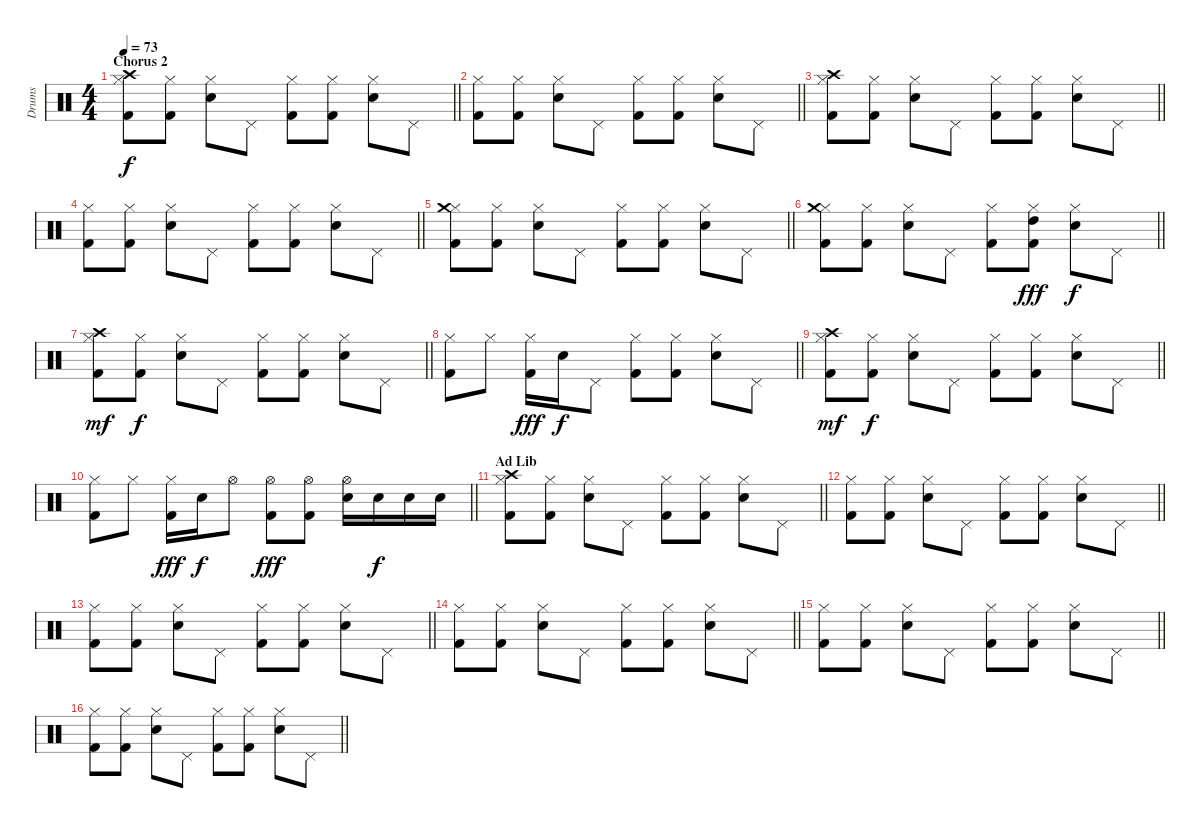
\track ("Drums" "Drums") {instrument percussion}
\staff {score}
\articulation defaults
\ts (4 4)
\section ("" "Chorus 2")
\tempo 73
\clef neutral
\barLineRight lightlight
\ks c
("Hi-Hat (closed)" "Kick (hit) 2" "Crash high (hit)").8{dy f} ("Hi-Hat (closed)" "Kick (hit) 2").8 ("Hi-Hat (closed)" "Snare (hit) 2").8 "Pedal Hi-Hat (hit)".8 ("Hi-Hat (closed)" "Kick (hit) 2").8 ("Hi-Hat (closed)" "Kick (hit) 2").8 ("Hi-Hat (closed)" "Snare (hit) 2").8 "Pedal Hi-Hat (hit)".8 |
\barLineRight lightlight
("Hi-Hat (closed)" "Kick (hit) 2").8 ("Hi-Hat (closed)" "Kick (hit) 2").8 ("Hi-Hat (closed)" "Snare (hit) 2").8 "Pedal Hi-Hat (hit)".8 ("Hi-Hat (closed)" "Kick (hit) 2").8 ("Hi-Hat (closed)" "Kick (hit) 2").8 ("Hi-Hat (closed)" "Snare (hit) 2").8 "Pedal Hi-Hat (hit)".8 |
\barLineRight lightlight
("Hi-Hat (closed)" "Kick (hit) 2" "Crash high (hit)").8 ("Hi-Hat (closed)" "Kick (hit) 2").8 ("Hi-Hat (closed)" "Snare (hit) 2").8 "Pedal Hi-Hat (hit)".8 ("Hi-Hat (closed)" "Kick (hit) 2").8 ("Hi-Hat (closed)" "Kick (hit) 2").8 ("Hi-Hat (closed)" "Snare (hit) 2").8 "Pedal Hi-Hat (hit)".8 |
\barLineRight lightlight
("Hi-Hat (closed)" "Kick (hit) 2").8 ("Hi-Hat (closed)" "Kick (hit) 2").8 ("Hi-Hat (closed)" "Snare (hit) 2").8 "Pedal Hi-Hat (hit)".8 ("Hi-Hat (closed)" "Kick (hit) 2").8 ("Hi-Hat (closed)" "Kick (hit) 2").8 ("Hi-Hat (closed)" "Snare (hit) 2").8 "Pedal Hi-Hat (hit)".8 |
\barLineRight lightlight
("Hi-Hat (closed)" "Kick (hit) 2" "Crash medium (hit)").8 ("Hi-Hat (closed)" "Kick (hit) 2").8 ("Hi-Hat (closed)" "Snare (hit) 2").8 "Pedal Hi-Hat (hit)".8 ("Hi-Hat (closed)" "Kick (hit) 2").8 ("Hi-Hat (closed)" "Kick (hit) 2").8 ("Hi-Hat (closed)" "Snare (hit) 2").8 "Pedal Hi-Hat (hit)".8 |
\barLineRight lightlight
("Hi-Hat (closed)" "Kick (hit) 2" "Crash medium (hit)").8 ("Hi-Hat (closed)" "Kick (hit) 2").8 ("Hi-Hat (closed)" "Snare (hit) 2").8 "Pedal Hi-Hat (hit)".8 ("Hi-Hat (closed)" "Kick (hit) 2").8 ("Hi-Hat (closed)" "Kick (hit) 2" "High Tom (hit)").8{dy fff} ("Hi-Hat (closed)" "Snare (hit) 2").8{dy f} "Pedal Hi-Hat (hit)".8 |
\barLineRight lightlight
("Hi-Hat (closed)" "Kick (hit) 2" "Crash high (hit)").8{dy mf} ("Hi-Hat (closed)" "Kick (hit) 2").8{dy f} ("Hi-Hat (closed)" "Snare (hit) 2").8 "Pedal Hi-Hat (hit)".8 ("Hi-Hat (closed)" "Kick (hit) 2").8 ("Hi-Hat (closed)" "Kick (hit) 2").8 ("Hi-Hat (closed)" "Snare (hit) 2").8 "Pedal Hi-Hat (hit)".8 |
\barLineRight lightlight
("Hi-Hat (closed)" "Kick (hit) 2").8 "Hi-Hat (closed)".8 ("Hi-Hat (closed)" "Kick (hit) 2").16{dy fff} "Snare (hit) 2".16{dy f} "Pedal Hi-Hat (hit)".8 ("Hi-Hat (closed)" "Kick (hit) 2").8 ("Hi-Hat (closed)" "Kick (hit) 2").8 ("Hi-Hat (closed)" "Snare (hit) 2").8 "Pedal Hi-Hat (hit)".8 |
\barLineRight lightlight
("Hi-Hat (closed)" "Kick (hit) 2" "Crash high (hit)").8{dy mf} ("Hi-Hat (closed)" "Kick (hit) 2").8{dy f} ("Hi-Hat (closed)" "Snare (hit) 2").8 "Pedal Hi-Hat (hit)".8 ("Hi-Hat (closed)" "Kick (hit) 2").8 ("Hi-Hat (closed)" "Kick (hit) 2").8 ("Hi-Hat (closed)" "Snare (hit) 2").8 "Pedal Hi-Hat (hit)".8 |
\barLineRight lightlight
("Hi-Hat (closed)" "Kick (hit) 2").8 "Hi-Hat (closed)".8 ("Hi-Hat (closed)" "Kick (hit) 2").16{dy fff} "Snare (hit) 2".16{dy f} "Hi-Hat (open)".8 ("Hi-Hat (open)" "Kick (hit) 2").8{dy fff} ("Hi-Hat (open)" "Kick (hit) 2").8 ("Hi-Hat (open)" "Snare (hit) 2").16 "Snare (hit) 2".16{dy f} "Snare (hit) 2".16 "Snare (hit) 2".16 |
\section ("" "Ad Lib")
\barLineRight lightlight
("Hi-Hat (closed)" "Kick (hit) 2" "Crash high (hit)").8 ("Hi-Hat (closed)" "Kick (hit) 2").8 ("Hi-Hat (closed)" "Snare (hit) 2").8 "Pedal Hi-Hat (hit)".8 ("Hi-Hat (closed)" "Kick (hit) 2").8 ("Hi-Hat (closed)" "Kick (hit) 2").8 ("Hi-Hat (closed)" "Snare (hit) 2").8 "Pedal Hi-Hat (hit)".8 |
\barLineRight lightlight
("Hi-Hat (closed)" "Kick (hit) 2").8 ("Hi-Hat (closed)" "Kick (hit) 2").8 ("Hi-Hat (closed)" "Snare (hit) 2").8 "Pedal Hi-Hat (hit)".8 ("Hi-Hat (closed)" "Kick (hit) 2").8 ("Hi-Hat (closed)" "Kick (hit) 2").8 ("Hi-Hat (closed)" "Snare (hit) 2").8 "Pedal Hi-Hat (hit)".8 |
\barLineRight lightlight
("Hi-Hat (closed)" "Kick (hit) 2").8 ("Hi-Hat (closed)" "Kick (hit) 2").8 ("Hi-Hat (closed)" "Snare (hit) 2").8 "Pedal Hi-Hat (hit)".8 ("Hi-Hat (closed)" "Kick (hit) 2").8 ("Hi-Hat (closed)" "Kick (hit) 2").8 ("Hi-Hat (closed)" "Snare (hit) 2").8 "Pedal Hi-Hat (hit)".8 |
\barLineRight lightlight
("Hi-Hat (closed)" "Kick (hit) 2").8 ("Hi-Hat (closed)" "Kick (hit) 2").8 ("Hi-Hat (closed)" "Snare (hit) 2").8 "Pedal Hi-Hat (hit)".8 ("Hi-Hat (closed)" "Kick (hit) 2").8 ("Hi-Hat (closed)" "Kick (hit) 2").8 ("Hi-Hat (closed)" "Snare (hit) 2").8 "Pedal Hi-Hat (hit)".8 |
\barLineRight lightlight
("Hi-Hat (closed)" "Kick (hit) 2").8 ("Hi-Hat (closed)" "Kick (hit) 2").8 ("Hi-Hat (closed)" "Snare (hit) 2").8 "Pedal Hi-Hat (hit)".8 ("Hi-Hat (closed)" "Kick (hit) 2").8 ("Hi-Hat (closed)" "Kick (hit) 2").8 ("Hi-Hat (closed)" "Snare (hit) 2").8 "Pedal Hi-Hat (hit)".8 |
\barLineRight lightlight
("Hi-Hat (closed)" "Kick (hit) 2").8 ("Hi-Hat (closed)" "Kick (hit) 2").8 ("Hi-Hat (closed)" "Snare (hit) 2").8 "Pedal Hi-Hat (hit)".8 ("Hi-Hat (closed)" "Kick (hit) 2").8 ("Hi-Hat (closed)" "Kick (hit) 2").8 ("Hi-Hat (closed)" "Snare (hit) 2").8 "Pedal Hi-Hat (hit)".8
